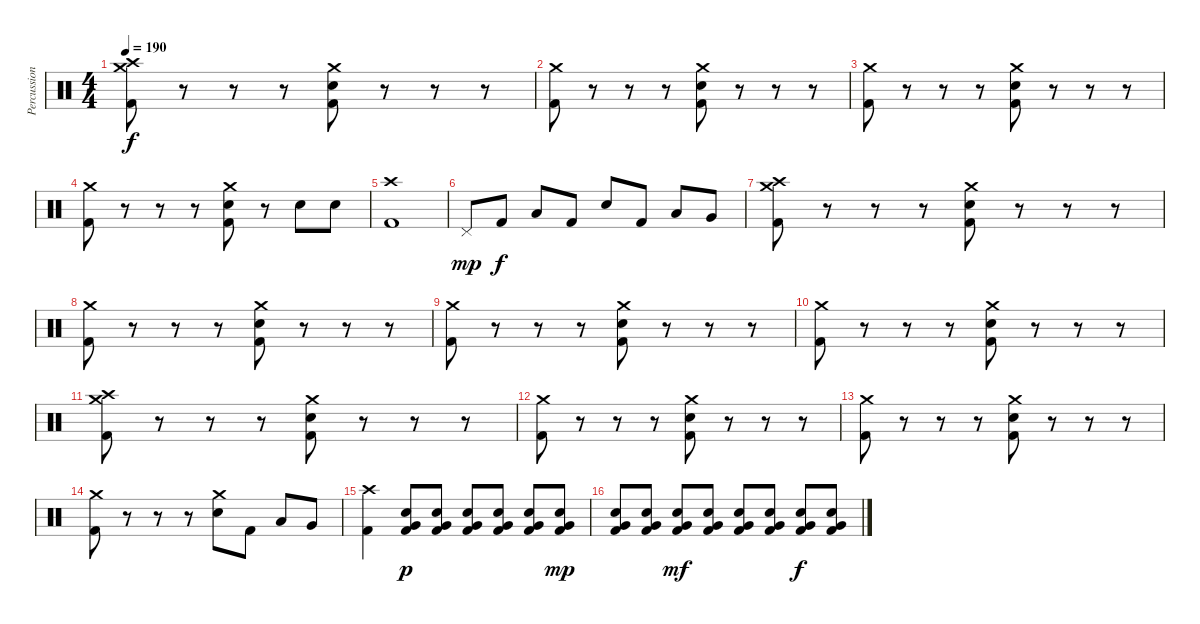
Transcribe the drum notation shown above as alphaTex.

\track ("Percussion" "Percussion") {instrument percussion}
\staff {score}
\articulation defaults
\ts (4 4)
\tempo 190
\clef neutral
\ks c
("Crash high (hit)" "Crash medium (hit)" "Kick (hit) 2").8{dy f} r.8 r.8 r.8 ("Crash medium (hit)" "Electric Snare (hit)" "Kick (hit) 2").8 r.8 r.8 r.8 |
("Crash medium (hit)" "Kick (hit) 2").8 r.8 r.8 r.8 ("Crash medium (hit)" "Electric Snare (hit)" "Kick (hit) 2").8 r.8 r.8 r.8 |
("Crash medium (hit)" "Kick (hit) 2").8 r.8 r.8 r.8 ("Crash medium (hit)" "Electric Snare (hit)" "Kick (hit) 2").8 r.8 r.8 r.8 |
("Crash medium (hit)" "Kick (hit) 2").8 r.8 r.8 r.8 ("Crash medium (hit)" "Electric Snare (hit)" "Kick (hit) 2").8 r.8 "Electric Snare (hit)".8 "Electric Snare (hit)".8 |
("Crash high (hit)" "Kick (hit) 2").1 |
"Pedal Hi-Hat (hit)".8{dy mp} "Kick (hit) 2".8{dy f} "Low Tom (hit)".8 "Kick (hit) 2".8 "Electric Snare (hit)".8 "Kick (hit) 2".8 "Low Tom (hit)".8 "Very Low Tom (hit)".8 |
("Crash high (hit)" "Crash medium (hit)" "Kick (hit) 2").8 r.8 r.8 r.8 ("Crash medium (hit)" "Electric Snare (hit)" "Kick (hit) 2").8 r.8 r.8 r.8 |
("Crash medium (hit)" "Kick (hit) 2").8 r.8 r.8 r.8 ("Crash medium (hit)" "Electric Snare (hit)" "Kick (hit) 2").8 r.8 r.8 r.8 |
("Crash medium (hit)" "Kick (hit) 2").8 r.8 r.8 r.8 ("Crash medium (hit)" "Electric Snare (hit)" "Kick (hit) 2").8 r.8 r.8 r.8 |
("Crash medium (hit)" "Kick (hit) 2").8 r.8 r.8 r.8 ("Crash medium (hit)" "Electric Snare (hit)" "Kick (hit) 2").8 r.8 r.8 r.8 |
("Crash high (hit)" "Crash medium (hit)" "Kick (hit) 2").8 r.8 r.8 r.8 ("Crash medium (hit)" "Electric Snare (hit)" "Kick (hit) 2").8 r.8 r.8 r.8 |
("Crash medium (hit)" "Kick (hit) 2").8 r.8 r.8 r.8 ("Crash medium (hit)" "Electric Snare (hit)" "Kick (hit) 2").8 r.8 r.8 r.8 |
("Crash medium (hit)" "Kick (hit) 2").8 r.8 r.8 r.8 ("Crash medium (hit)" "Electric Snare (hit)" "Kick (hit) 2").8 r.8 r.8 r.8 |
("Crash medium (hit)" "Kick (hit) 2").8 r.8 r.8 r.8 ("Crash medium (hit)" "Electric Snare (hit)").8 "Kick (hit) 2".8 "Low Tom (hit)".8 "Very Low Tom (hit)".8 |
("Crash high (hit)" "Kick (hit) 2").4 ("Electric Snare (hit)" "Very Low Tom (hit)" "Kick (hit) 2").8{dy p} ("Electric Snare (hit)" "Very Low Tom (hit)" "Kick (hit) 2").8 ("Electric Snare (hit)" "Very Low Tom (hit)" "Kick (hit) 2").8 ("Electric Snare (hit)" "Very Low Tom (hit)" "Kick (hit) 2").8 ("Electric Snare (hit)" "Very Low Tom (hit)" "Kick (hit) 2").8 ("Electric Snare (hit)" "Very Low Tom (hit)" "Kick (hit) 2").8{dy mp} |
("Electric Snare (hit)" "Very Low Tom (hit)" "Kick (hit) 2").8 ("Electric Snare (hit)" "Very Low Tom (hit)" "Kick (hit) 2").8 ("Electric Snare (hit)" "Very Low Tom (hit)" "Kick (hit) 2").8{dy mf} ("Electric Snare (hit)" "Very Low Tom (hit)" "Kick (hit) 2").8 ("Electric Snare (hit)" "Very Low Tom (hit)" "Kick (hit) 2").8 ("Electric Snare (hit)" "Very Low Tom (hit)" "Kick (hit) 2").8 ("Electric Snare (hit)" "Very Low Tom (hit)" "Kick (hit) 2").8{dy f} ("Electric Snare (hit)" "Very Low Tom (hit)" "Kick (hit) 2").8
